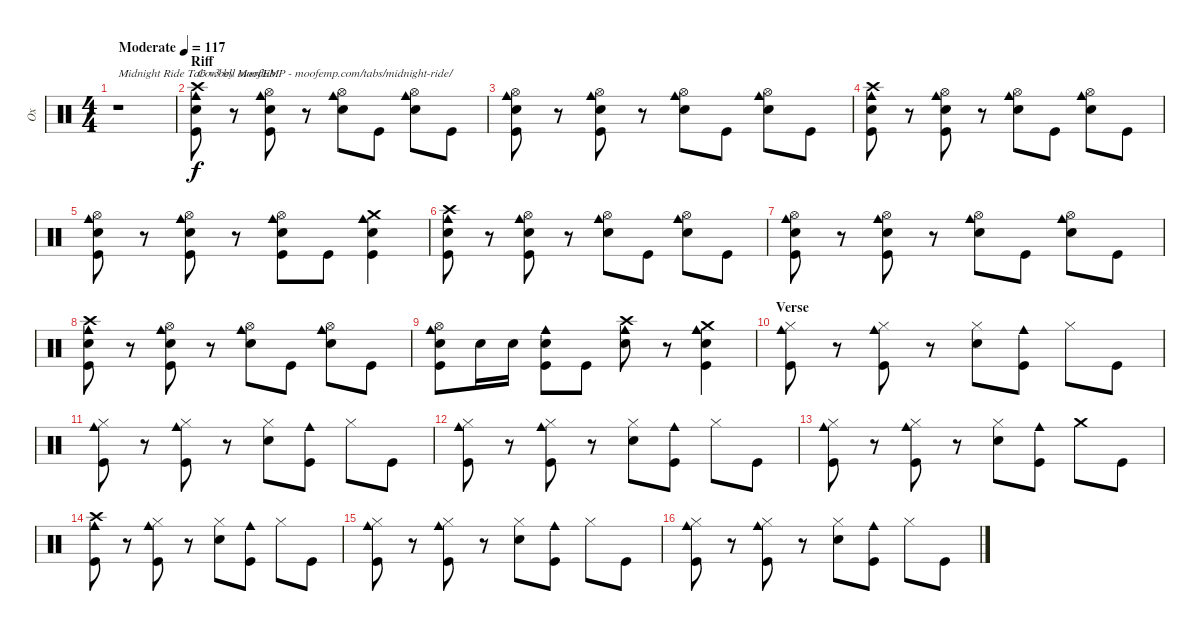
\track ("Ox" "Ox") {instrument percussion}
\staff {score}
\articulation defaults
\ts (4 4)
\tempo (117 "Moderate")
\clef neutral
\ks c
r.1{txt "Midnight Ride Tab v3 by MoofEMP - moofemp.com/tabs/midnight-ride/" dy f} |
\section ("" "Riff")
("Snare (hit) 2" "Kick (hit)" "Crash high (hit)" "Cowbell medium (hit)").8{txt "Cowbell overdub"} r.8 ("Snare (hit) 2" "Kick (hit)" "Cowbell medium (hit)" "Hi-Hat (open)").8 r.8 ("Snare (hit) 2" "Cowbell medium (hit)" "Hi-Hat (open)").8 "Kick (hit)".8 ("Snare (hit) 2" "Cowbell medium (hit)" "Hi-Hat (open)").8 "Kick (hit)".8 |
("Snare (hit) 2" "Kick (hit)" "Cowbell medium (hit)" "Hi-Hat (open)").8 r.8 ("Snare (hit) 2" "Kick (hit)" "Cowbell medium (hit)" "Hi-Hat (open)").8 r.8 ("Snare (hit) 2" "Cowbell medium (hit)" "Hi-Hat (open)").8 "Kick (hit)".8 ("Snare (hit) 2" "Cowbell medium (hit)" "Hi-Hat (open)").8 "Kick (hit)".8 |
("Snare (hit) 2" "Kick (hit)" "Crash high (hit)" "Cowbell medium (hit)").8 r.8 ("Snare (hit) 2" "Kick (hit)" "Hi-Hat (open)" "Cowbell medium (hit)").8 r.8 ("Snare (hit) 2" "Hi-Hat (open)" "Cowbell medium (hit)").8 "Kick (hit)".8 ("Snare (hit) 2" "Hi-Hat (open)" "Cowbell medium (hit)").8 "Kick (hit)".8 |
("Snare (hit) 2" "Kick (hit)" "Cowbell medium (hit)" "Hi-Hat (open)").8 r.8 ("Snare (hit) 2" "Kick (hit)" "Cowbell medium (hit)" "Hi-Hat (open)").8 r.8 ("Snare (hit) 2" "Cowbell medium (hit)" "Kick (hit)" "Hi-Hat (open)").8 "Kick (hit)".8 ("Snare (hit) 2" "Crash medium (hit)" "Cowbell medium (hit)" "Kick (hit)").4 |
("Snare (hit) 2" "Kick (hit)" "Crash high (hit)" "Cowbell medium (hit)").8 r.8 ("Snare (hit) 2" "Kick (hit)" "Cowbell medium (hit)" "Hi-Hat (open)").8 r.8 ("Snare (hit) 2" "Cowbell medium (hit)" "Hi-Hat (open)").8 "Kick (hit)".8 ("Snare (hit) 2" "Cowbell medium (hit)" "Hi-Hat (open)").8 "Kick (hit)".8 |
("Snare (hit) 2" "Kick (hit)" "Cowbell medium (hit)" "Hi-Hat (open)").8 r.8 ("Snare (hit) 2" "Kick (hit)" "Cowbell medium (hit)" "Hi-Hat (open)").8 r.8 ("Snare (hit) 2" "Cowbell medium (hit)" "Hi-Hat (open)").8 "Kick (hit)".8 ("Snare (hit) 2" "Cowbell medium (hit)" "Hi-Hat (open)").8 "Kick (hit)".8 |
("Snare (hit) 2" "Kick (hit)" "Crash high (hit)" "Cowbell medium (hit)").8 r.8 ("Snare (hit) 2" "Kick (hit)" "Hi-Hat (open)" "Cowbell medium (hit)").8 r.8 ("Snare (hit) 2" "Hi-Hat (open)" "Cowbell medium (hit)").8 "Kick (hit)".8 ("Snare (hit) 2" "Hi-Hat (open)" "Cowbell medium (hit)").8 "Kick (hit)".8 |
("Snare (hit) 2" "Kick (hit)" "Cowbell medium (hit)" "Hi-Hat (open)").8 "Snare (hit) 2".16 "Snare (hit) 2".16 ("Snare (hit) 2" "Kick (hit)" "Cowbell medium (hit)").8 "Kick (hit)".8 ("Snare (hit) 2" "Cowbell medium (hit)" "Crash high (hit)").8 r.8 ("Snare (hit) 2" "Crash medium (hit)" "Cowbell medium (hit)" "Kick (hit)").4 |
\section ("" "Verse")
("Kick (hit)" "Hi-Hat (closed)" "Cowbell medium (hit)").8 r.8 ("Kick (hit)" "Hi-Hat (closed)" "Cowbell medium (hit)").8 r.8 ("Snare (hit) 2" "Hi-Hat (closed)").8 ("Kick (hit)" "Cowbell medium (hit)").8 "Hi-Hat (closed)".8 "Kick (hit)".8 |
("Kick (hit)" "Hi-Hat (closed)" "Cowbell medium (hit)").8 r.8 ("Kick (hit)" "Hi-Hat (closed)" "Cowbell medium (hit)").8 r.8 ("Snare (hit) 2" "Hi-Hat (closed)").8 ("Kick (hit)" "Cowbell medium (hit)").8 "Hi-Hat (closed)".8 "Kick (hit)".8 |
("Kick (hit)" "Hi-Hat (closed)" "Cowbell medium (hit)").8 r.8 ("Kick (hit)" "Hi-Hat (closed)" "Cowbell medium (hit)").8 r.8 ("Snare (hit) 2" "Hi-Hat (closed)").8 ("Kick (hit)" "Cowbell medium (hit)").8 "Hi-Hat (closed)".8 "Kick (hit)".8 |
("Kick (hit)" "Hi-Hat (closed)" "Cowbell medium (hit)").8 r.8 ("Kick (hit)" "Hi-Hat (closed)" "Cowbell medium (hit)").8 r.8 ("Snare (hit) 2" "Hi-Hat (closed)").8 ("Kick (hit)" "Cowbell medium (hit)").8 "Crash medium (hit)".8 "Kick (hit)".8 |
("Kick (hit)" "Crash high (hit)" "Cowbell medium (hit)").8 r.8 ("Kick (hit)" "Hi-Hat (closed)" "Cowbell medium (hit)").8 r.8 ("Snare (hit) 2" "Hi-Hat (closed)").8 ("Kick (hit)" "Cowbell medium (hit)").8 "Hi-Hat (closed)".8 "Kick (hit)".8 |
("Kick (hit)" "Hi-Hat (closed)" "Cowbell medium (hit)").8 r.8 ("Kick (hit)" "Hi-Hat (closed)" "Cowbell medium (hit)").8 r.8 ("Snare (hit) 2" "Hi-Hat (closed)").8 ("Kick (hit)" "Cowbell medium (hit)").8 "Hi-Hat (closed)".8 "Kick (hit)".8 |
("Kick (hit)" "Hi-Hat (closed)" "Cowbell medium (hit)").8 r.8 ("Kick (hit)" "Hi-Hat (closed)" "Cowbell medium (hit)").8 r.8 ("Snare (hit) 2" "Hi-Hat (closed)").8 ("Kick (hit)" "Cowbell medium (hit)").8 "Hi-Hat (closed)".8 "Kick (hit)".8
